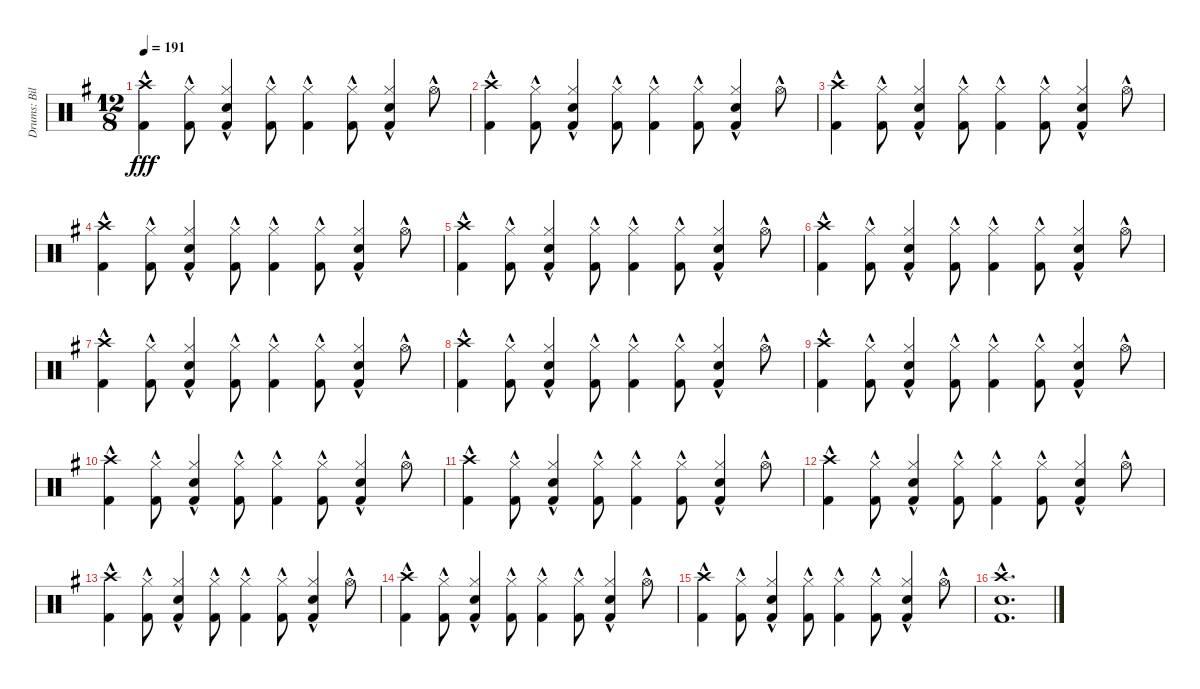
\track ("Drums: Bill" "Drums: Bil") {instrument percussion}
\staff {score}
\articulation defaults
\ts (12 8)
\tempo 191
\clef neutral
\ks g
("Crash high (hit)"{hac} "Kick (hit) 2"{hac}).4{dy fff} ("Hi-Hat (closed)"{hac} "Kick (hit) 2"{hac}).8 ("Hi-Hat (closed)"{hac} "Snare (hit) 2"{hac} "Kick (hit) 2"{hac}).4 ("Hi-Hat (closed)"{hac} "Kick (hit) 2"{hac}).8 ("Hi-Hat (closed)"{hac} "Kick (hit) 2"{hac}).4 ("Hi-Hat (closed)"{hac} "Kick (hit) 2"{hac}).8 ("Hi-Hat (closed)"{hac} "Snare (hit) 2"{hac} "Kick (hit) 2"{hac}).4 "Hi-Hat (open)"{hac}.8 |
("Crash high (hit)"{hac} "Kick (hit) 2"{hac}).4 ("Hi-Hat (closed)"{hac} "Kick (hit) 2"{hac}).8 ("Hi-Hat (closed)"{hac} "Snare (hit) 2"{hac} "Kick (hit) 2"{hac}).4 ("Hi-Hat (closed)"{hac} "Kick (hit) 2"{hac}).8 ("Hi-Hat (closed)"{hac} "Kick (hit) 2"{hac}).4 ("Hi-Hat (closed)"{hac} "Kick (hit) 2"{hac}).8 ("Hi-Hat (closed)"{hac} "Snare (hit) 2"{hac} "Kick (hit) 2"{hac}).4 "Hi-Hat (open)"{hac}.8 |
("Crash high (hit)"{hac} "Kick (hit) 2"{hac}).4 ("Hi-Hat (closed)"{hac} "Kick (hit) 2"{hac}).8 ("Hi-Hat (closed)"{hac} "Snare (hit) 2"{hac} "Kick (hit) 2"{hac}).4 ("Hi-Hat (closed)"{hac} "Kick (hit) 2"{hac}).8 ("Hi-Hat (closed)"{hac} "Kick (hit) 2"{hac}).4 ("Hi-Hat (closed)"{hac} "Kick (hit) 2"{hac}).8 ("Hi-Hat (closed)"{hac} "Snare (hit) 2"{hac} "Kick (hit) 2"{hac}).4 "Hi-Hat (open)"{hac}.8 |
("Crash high (hit)"{hac} "Kick (hit) 2"{hac}).4 ("Hi-Hat (closed)"{hac} "Kick (hit) 2"{hac}).8 ("Hi-Hat (closed)"{hac} "Snare (hit) 2"{hac} "Kick (hit) 2"{hac}).4 ("Hi-Hat (closed)"{hac} "Kick (hit) 2"{hac}).8 ("Hi-Hat (closed)"{hac} "Kick (hit) 2"{hac}).4 ("Hi-Hat (closed)"{hac} "Kick (hit) 2"{hac}).8 ("Hi-Hat (closed)"{hac} "Snare (hit) 2"{hac} "Kick (hit) 2"{hac}).4 "Hi-Hat (open)"{hac}.8 |
("Crash high (hit)"{hac} "Kick (hit) 2"{hac}).4 ("Hi-Hat (closed)"{hac} "Kick (hit) 2"{hac}).8 ("Hi-Hat (closed)"{hac} "Snare (hit) 2"{hac} "Kick (hit) 2"{hac}).4 ("Hi-Hat (closed)"{hac} "Kick (hit) 2"{hac}).8 ("Hi-Hat (closed)"{hac} "Kick (hit) 2"{hac}).4 ("Hi-Hat (closed)"{hac} "Kick (hit) 2"{hac}).8 ("Hi-Hat (closed)"{hac} "Snare (hit) 2"{hac} "Kick (hit) 2"{hac}).4 "Hi-Hat (open)"{hac}.8 |
("Crash high (hit)"{hac} "Kick (hit) 2"{hac}).4 ("Hi-Hat (closed)"{hac} "Kick (hit) 2"{hac}).8 ("Hi-Hat (closed)"{hac} "Snare (hit) 2"{hac} "Kick (hit) 2"{hac}).4 ("Hi-Hat (closed)"{hac} "Kick (hit) 2"{hac}).8 ("Hi-Hat (closed)"{hac} "Kick (hit) 2"{hac}).4 ("Hi-Hat (closed)"{hac} "Kick (hit) 2"{hac}).8 ("Hi-Hat (closed)"{hac} "Snare (hit) 2"{hac} "Kick (hit) 2"{hac}).4 "Hi-Hat (open)"{hac}.8 |
("Crash high (hit)"{hac} "Kick (hit) 2"{hac}).4 ("Hi-Hat (closed)"{hac} "Kick (hit) 2"{hac}).8 ("Hi-Hat (closed)"{hac} "Snare (hit) 2"{hac} "Kick (hit) 2"{hac}).4 ("Hi-Hat (closed)"{hac} "Kick (hit) 2"{hac}).8 ("Hi-Hat (closed)"{hac} "Kick (hit) 2"{hac}).4 ("Hi-Hat (closed)"{hac} "Kick (hit) 2"{hac}).8 ("Hi-Hat (closed)"{hac} "Snare (hit) 2"{hac} "Kick (hit) 2"{hac}).4 "Hi-Hat (open)"{hac}.8 |
("Crash high (hit)"{hac} "Kick (hit) 2"{hac}).4 ("Hi-Hat (closed)"{hac} "Kick (hit) 2"{hac}).8 ("Hi-Hat (closed)"{hac} "Snare (hit) 2"{hac} "Kick (hit) 2"{hac}).4 ("Hi-Hat (closed)"{hac} "Kick (hit) 2"{hac}).8 ("Hi-Hat (closed)"{hac} "Kick (hit) 2"{hac}).4 ("Hi-Hat (closed)"{hac} "Kick (hit) 2"{hac}).8 ("Hi-Hat (closed)"{hac} "Snare (hit) 2"{hac} "Kick (hit) 2"{hac}).4 "Hi-Hat (open)"{hac}.8 |
("Crash high (hit)"{hac} "Kick (hit) 2"{hac}).4 ("Hi-Hat (closed)"{hac} "Kick (hit) 2"{hac}).8 ("Hi-Hat (closed)"{hac} "Snare (hit) 2"{hac} "Kick (hit) 2"{hac}).4 ("Hi-Hat (closed)"{hac} "Kick (hit) 2"{hac}).8 ("Hi-Hat (closed)"{hac} "Kick (hit) 2"{hac}).4 ("Hi-Hat (closed)"{hac} "Kick (hit) 2"{hac}).8 ("Hi-Hat (closed)"{hac} "Snare (hit) 2"{hac} "Kick (hit) 2"{hac}).4 "Hi-Hat (open)"{hac}.8 |
("Crash high (hit)"{hac} "Kick (hit) 2"{hac}).4 ("Hi-Hat (closed)"{hac} "Kick (hit) 2"{hac}).8 ("Hi-Hat (closed)"{hac} "Snare (hit) 2"{hac} "Kick (hit) 2"{hac}).4 ("Hi-Hat (closed)"{hac} "Kick (hit) 2"{hac}).8 ("Hi-Hat (closed)"{hac} "Kick (hit) 2"{hac}).4 ("Hi-Hat (closed)"{hac} "Kick (hit) 2"{hac}).8 ("Hi-Hat (closed)"{hac} "Snare (hit) 2"{hac} "Kick (hit) 2"{hac}).4 "Hi-Hat (open)"{hac}.8 |
("Crash high (hit)"{hac} "Kick (hit) 2"{hac}).4 ("Hi-Hat (closed)"{hac} "Kick (hit) 2"{hac}).8 ("Hi-Hat (closed)"{hac} "Snare (hit) 2"{hac} "Kick (hit) 2"{hac}).4 ("Hi-Hat (closed)"{hac} "Kick (hit) 2"{hac}).8 ("Hi-Hat (closed)"{hac} "Kick (hit) 2"{hac}).4 ("Hi-Hat (closed)"{hac} "Kick (hit) 2"{hac}).8 ("Hi-Hat (closed)"{hac} "Snare (hit) 2"{hac} "Kick (hit) 2"{hac}).4 "Hi-Hat (open)"{hac}.8 |
("Crash high (hit)"{hac} "Kick (hit) 2"{hac}).4 ("Hi-Hat (closed)"{hac} "Kick (hit) 2"{hac}).8 ("Hi-Hat (closed)"{hac} "Snare (hit) 2"{hac} "Kick (hit) 2"{hac}).4 ("Hi-Hat (closed)"{hac} "Kick (hit) 2"{hac}).8 ("Hi-Hat (closed)"{hac} "Kick (hit) 2"{hac}).4 ("Hi-Hat (closed)"{hac} "Kick (hit) 2"{hac}).8 ("Hi-Hat (closed)"{hac} "Snare (hit) 2"{hac} "Kick (hit) 2"{hac}).4 "Hi-Hat (open)"{hac}.8 |
("Crash high (hit)"{hac} "Kick (hit) 2"{hac}).4 ("Hi-Hat (closed)"{hac} "Kick (hit) 2"{hac}).8 ("Hi-Hat (closed)"{hac} "Snare (hit) 2"{hac} "Kick (hit) 2"{hac}).4 ("Hi-Hat (closed)"{hac} "Kick (hit) 2"{hac}).8 ("Hi-Hat (closed)"{hac} "Kick (hit) 2"{hac}).4 ("Hi-Hat (closed)"{hac} "Kick (hit) 2"{hac}).8 ("Hi-Hat (closed)"{hac} "Snare (hit) 2"{hac} "Kick (hit) 2"{hac}).4 "Hi-Hat (open)"{hac}.8 |
("Crash high (hit)"{hac} "Kick (hit) 2"{hac}).4 ("Hi-Hat (closed)"{hac} "Kick (hit) 2"{hac}).8 ("Hi-Hat (closed)"{hac} "Snare (hit) 2"{hac} "Kick (hit) 2"{hac}).4 ("Hi-Hat (closed)"{hac} "Kick (hit) 2"{hac}).8 ("Hi-Hat (closed)"{hac} "Kick (hit) 2"{hac}).4 ("Hi-Hat (closed)"{hac} "Kick (hit) 2"{hac}).8 ("Hi-Hat (closed)"{hac} "Snare (hit) 2"{hac} "Kick (hit) 2"{hac}).4 "Hi-Hat (open)"{hac}.8 |
("Crash high (hit)"{hac} "Kick (hit) 2"{hac}).4 ("Hi-Hat (closed)"{hac} "Kick (hit) 2"{hac}).8 ("Hi-Hat (closed)"{hac} "Snare (hit) 2"{hac} "Kick (hit) 2"{hac}).4 ("Hi-Hat (closed)"{hac} "Kick (hit) 2"{hac}).8 ("Hi-Hat (closed)"{hac} "Kick (hit) 2"{hac}).4 ("Hi-Hat (closed)"{hac} "Kick (hit) 2"{hac}).8 ("Hi-Hat (closed)"{hac} "Snare (hit) 2"{hac} "Kick (hit) 2"{hac}).4 "Hi-Hat (open)"{hac}.8 |
("Crash high (hit)"{hac} "Snare (hit) 2"{hac} "Kick (hit) 2"{hac}).1{d}
